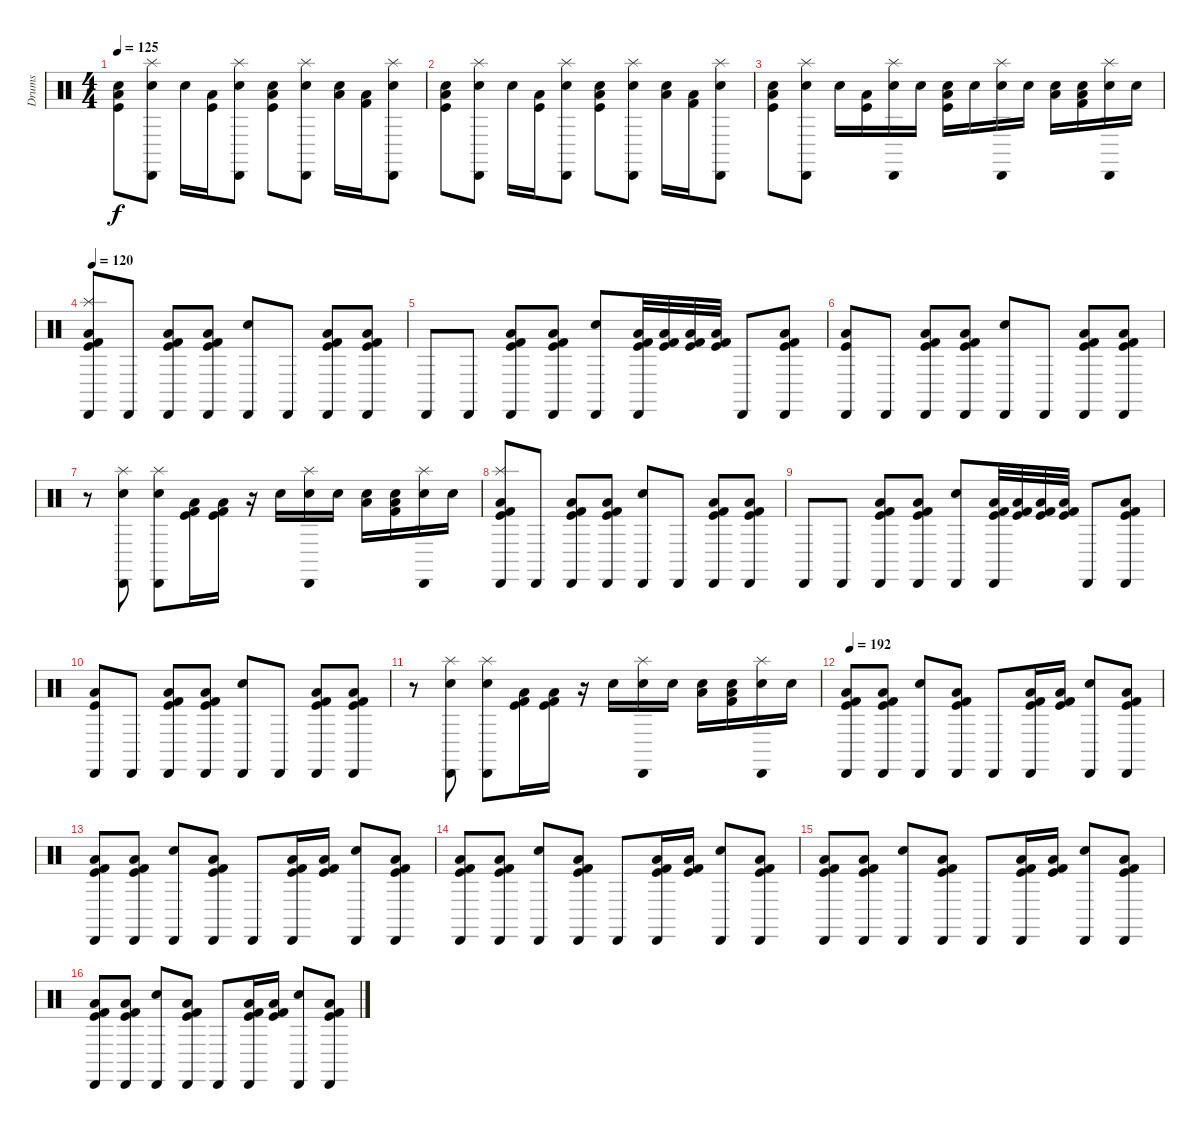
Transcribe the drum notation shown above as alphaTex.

\track ("Drums" "Drums") {instrument percussion}
\staff {score}
\articulation defaults
\ts (4 4)
\tempo 125
\clef neutral
\ks c
("Kick (hit)" "Low Tom (hit)" "Electric Snare (hit)").8{dy f} ("Cabasa (hit)" "Splash (hit)" "Electric Snare (hit)").8 "Electric Snare (hit)".16 ("Kick (hit)" "Low Tom (hit)").16 ("Cabasa (hit)" "Splash (hit)" "Electric Snare (hit)").8 ("Kick (hit)" "Low Tom (hit)" "Electric Snare (hit)").8 ("Cabasa (hit)" "Splash (hit)" "Electric Snare (hit)").8 ("Low Tom (hit)" "Electric Snare (hit)").16 ("Kick (hit) 2" "Low Tom (hit)").16 ("Cabasa (hit)" "Splash (hit)" "Electric Snare (hit)").8 |
("Kick (hit)" "Low Tom (hit)" "Electric Snare (hit)").8 ("Cabasa (hit)" "Splash (hit)" "Electric Snare (hit)").8 "Electric Snare (hit)".16 ("Kick (hit)" "Low Tom (hit)").16 ("Cabasa (hit)" "Splash (hit)" "Electric Snare (hit)").8 ("Kick (hit)" "Low Tom (hit)" "Electric Snare (hit)").8 ("Cabasa (hit)" "Splash (hit)" "Electric Snare (hit)").8 ("Low Tom (hit)" "Electric Snare (hit)").16 ("Kick (hit) 2" "Low Tom (hit)").16 ("Cabasa (hit)" "Splash (hit)" "Electric Snare (hit)").8 |
("Kick (hit)" "Low Tom (hit)" "Electric Snare (hit)").8 ("Cabasa (hit)" "Splash (hit)" "Electric Snare (hit)").8 "Electric Snare (hit)".16 ("Kick (hit)" "Low Tom (hit)").16 ("Cabasa (hit)" "Splash (hit)" "Electric Snare (hit)").16 "Electric Snare (hit)".16 ("Kick (hit)" "Low Tom (hit)" "Electric Snare (hit)").16 "Electric Snare (hit)".16 ("Cabasa (hit)" "Splash (hit)" "Electric Snare (hit)").16 "Electric Snare (hit)".16 ("Low Tom (hit)" "Electric Snare (hit)").16 ("Electric Snare (hit)" "Kick (hit) 2" "Low Tom (hit)").16 ("Cabasa (hit)" "Splash (hit)" "Electric Snare (hit)").16 "Electric Snare (hit)".16 |
\tempo 120
("Kick (hit) 2" "Cabasa (hit)" "Splash (hit)" "Kick (hit)" "Low Tom (hit)").8 "Cabasa (hit)".8 ("Low Tom (hit)" "Kick (hit) 2" "Kick (hit)" "Cabasa (hit)").8 ("Low Tom (hit)" "Kick (hit) 2" "Kick (hit)" "Cabasa (hit)").8 ("Electric Snare (hit)" "Cabasa (hit)").8 "Cabasa (hit)".8 ("Kick (hit) 2" "Kick (hit)" "Low Tom (hit)" "Cabasa (hit)").8 ("Kick (hit) 2" "Kick (hit)" "Low Tom (hit)" "Cabasa (hit)").8 |
"Cabasa (hit)".8 "Cabasa (hit)".8 ("Kick (hit) 2" "Low Tom (hit)" "Kick (hit)" "Cabasa (hit)").8 ("Kick (hit) 2" "Low Tom (hit)" "Kick (hit)" "Cabasa (hit)").8 ("Electric Snare (hit)" "Cabasa (hit)").8 ("Kick (hit)" "Kick (hit) 2" "Low Tom (hit)" "Cabasa (hit)").32 ("Kick (hit)" "Kick (hit) 2" "Low Tom (hit)").32 ("Kick (hit)" "Kick (hit) 2" "Low Tom (hit)").32 ("Kick (hit)" "Kick (hit) 2" "Low Tom (hit)").32 "Cabasa (hit)".8 ("Low Tom (hit)" "Kick (hit)" "Kick (hit) 2" "Cabasa (hit)").8 |
("Cabasa (hit)" "Kick (hit)" "Low Tom (hit)").8 "Cabasa (hit)".8 ("Kick (hit)" "Kick (hit) 2" "Low Tom (hit)" "Cabasa (hit)").8 ("Kick (hit)" "Kick (hit) 2" "Low Tom (hit)" "Cabasa (hit)").8 ("Electric Snare (hit)" "Cabasa (hit)").8 "Cabasa (hit)".8 ("Kick (hit)" "Kick (hit) 2" "Low Tom (hit)" "Cabasa (hit)").8 ("Kick (hit)" "Kick (hit) 2" "Low Tom (hit)" "Cabasa (hit)").8 |
r.8 ("Cabasa (hit)" "Splash (hit)" "Electric Snare (hit)").8 ("Electric Snare (hit)" "Splash (hit)" "Cabasa (hit)").8 ("Kick (hit)" "Kick (hit) 2" "Low Tom (hit)").16 ("Kick (hit)" "Kick (hit) 2" "Low Tom (hit)").16 r.16 "Electric Snare (hit)".16 ("Cabasa (hit)" "Splash (hit)" "Electric Snare (hit)").16 "Electric Snare (hit)".16 ("Low Tom (hit)" "Electric Snare (hit)").16 ("Electric Snare (hit)" "Kick (hit) 2" "Low Tom (hit)").16 ("Cabasa (hit)" "Splash (hit)" "Electric Snare (hit)").16 "Electric Snare (hit)".16 |
("Kick (hit) 2" "Cabasa (hit)" "Splash (hit)" "Kick (hit)" "Low Tom (hit)").8 "Cabasa (hit)".8 ("Low Tom (hit)" "Kick (hit) 2" "Kick (hit)" "Cabasa (hit)").8 ("Low Tom (hit)" "Kick (hit) 2" "Kick (hit)" "Cabasa (hit)").8 ("Electric Snare (hit)" "Cabasa (hit)").8 "Cabasa (hit)".8 ("Kick (hit) 2" "Kick (hit)" "Low Tom (hit)" "Cabasa (hit)").8 ("Kick (hit) 2" "Kick (hit)" "Low Tom (hit)" "Cabasa (hit)").8 |
"Cabasa (hit)".8 "Cabasa (hit)".8 ("Kick (hit) 2" "Low Tom (hit)" "Kick (hit)" "Cabasa (hit)").8 ("Kick (hit) 2" "Low Tom (hit)" "Kick (hit)" "Cabasa (hit)").8 ("Electric Snare (hit)" "Cabasa (hit)").8 ("Kick (hit)" "Kick (hit) 2" "Low Tom (hit)" "Cabasa (hit)").32 ("Kick (hit)" "Kick (hit) 2" "Low Tom (hit)").32 ("Kick (hit)" "Kick (hit) 2" "Low Tom (hit)").32 ("Kick (hit)" "Kick (hit) 2" "Low Tom (hit)").32 "Cabasa (hit)".8 ("Low Tom (hit)" "Kick (hit)" "Kick (hit) 2" "Cabasa (hit)").8 |
("Cabasa (hit)" "Kick (hit)" "Low Tom (hit)").8 "Cabasa (hit)".8 ("Kick (hit)" "Kick (hit) 2" "Low Tom (hit)" "Cabasa (hit)").8 ("Kick (hit)" "Kick (hit) 2" "Low Tom (hit)" "Cabasa (hit)").8 ("Electric Snare (hit)" "Cabasa (hit)").8 "Cabasa (hit)".8 ("Kick (hit)" "Kick (hit) 2" "Low Tom (hit)" "Cabasa (hit)").8 ("Kick (hit)" "Kick (hit) 2" "Low Tom (hit)" "Cabasa (hit)").8 |
r.8 ("Cabasa (hit)" "Splash (hit)" "Electric Snare (hit)").8 ("Electric Snare (hit)" "Splash (hit)" "Cabasa (hit)").8 ("Kick (hit)" "Kick (hit) 2" "Low Tom (hit)").16 ("Kick (hit)" "Kick (hit) 2" "Low Tom (hit)").16 r.16 "Electric Snare (hit)".16 ("Cabasa (hit)" "Splash (hit)" "Electric Snare (hit)").16 "Electric Snare (hit)".16 ("Low Tom (hit)" "Electric Snare (hit)").16 ("Electric Snare (hit)" "Kick (hit) 2" "Low Tom (hit)").16 ("Cabasa (hit)" "Splash (hit)" "Electric Snare (hit)").16 "Electric Snare (hit)".16 |
\tempo 192
("Kick (hit)" "Kick (hit) 2" "Low Tom (hit)" "Cabasa (hit)").8 ("Kick (hit)" "Low Tom (hit)" "Kick (hit) 2" "Cabasa (hit)").8 ("Electric Snare (hit)" "Cabasa (hit)").8 ("Kick (hit)" "Low Tom (hit)" "Kick (hit) 2" "Cabasa (hit)").8 "Cabasa (hit)".8 ("Kick (hit)" "Kick (hit) 2" "Low Tom (hit)" "Cabasa (hit)").16 ("Kick (hit)" "Kick (hit) 2" "Low Tom (hit)").16 ("Electric Snare (hit)" "Cabasa (hit)").8 ("Kick (hit)" "Kick (hit) 2" "Low Tom (hit)" "Cabasa (hit)").8 |
("Kick (hit)" "Kick (hit) 2" "Low Tom (hit)" "Cabasa (hit)").8 ("Kick (hit)" "Kick (hit) 2" "Low Tom (hit)" "Cabasa (hit)").8 ("Electric Snare (hit)" "Cabasa (hit)").8 ("Kick (hit)" "Kick (hit) 2" "Low Tom (hit)" "Cabasa (hit)").8 "Cabasa (hit)".8 ("Kick (hit)" "Kick (hit) 2" "Low Tom (hit)" "Cabasa (hit)").16 ("Kick (hit)" "Kick (hit) 2" "Low Tom (hit)").16 ("Electric Snare (hit)" "Cabasa (hit)").8 ("Kick (hit)" "Kick (hit) 2" "Low Tom (hit)" "Cabasa (hit)").8 |
("Kick (hit)" "Kick (hit) 2" "Low Tom (hit)" "Cabasa (hit)").8 ("Kick (hit)" "Low Tom (hit)" "Kick (hit) 2" "Cabasa (hit)").8 ("Electric Snare (hit)" "Cabasa (hit)").8 ("Kick (hit)" "Low Tom (hit)" "Kick (hit) 2" "Cabasa (hit)").8 "Cabasa (hit)".8 ("Kick (hit)" "Kick (hit) 2" "Low Tom (hit)" "Cabasa (hit)").16 ("Kick (hit)" "Kick (hit) 2" "Low Tom (hit)").16 ("Electric Snare (hit)" "Cabasa (hit)").8 ("Kick (hit)" "Kick (hit) 2" "Low Tom (hit)" "Cabasa (hit)").8 |
("Kick (hit)" "Kick (hit) 2" "Low Tom (hit)" "Cabasa (hit)").8 ("Kick (hit)" "Kick (hit) 2" "Low Tom (hit)" "Cabasa (hit)").8 ("Electric Snare (hit)" "Cabasa (hit)").8 ("Kick (hit)" "Kick (hit) 2" "Low Tom (hit)" "Cabasa (hit)").8 "Cabasa (hit)".8 ("Kick (hit)" "Kick (hit) 2" "Low Tom (hit)" "Cabasa (hit)").16 ("Kick (hit)" "Kick (hit) 2" "Low Tom (hit)").16 ("Electric Snare (hit)" "Cabasa (hit)").8 ("Kick (hit)" "Kick (hit) 2" "Low Tom (hit)" "Cabasa (hit)").8 |
("Kick (hit)" "Kick (hit) 2" "Low Tom (hit)" "Cabasa (hit)").8 ("Kick (hit)" "Low Tom (hit)" "Kick (hit) 2" "Cabasa (hit)").8 ("Electric Snare (hit)" "Cabasa (hit)").8 ("Kick (hit)" "Low Tom (hit)" "Kick (hit) 2" "Cabasa (hit)").8 "Cabasa (hit)".8 ("Kick (hit)" "Kick (hit) 2" "Low Tom (hit)" "Cabasa (hit)").16 ("Kick (hit)" "Kick (hit) 2" "Low Tom (hit)").16 ("Electric Snare (hit)" "Cabasa (hit)").8 ("Kick (hit)" "Kick (hit) 2" "Low Tom (hit)" "Cabasa (hit)").8
